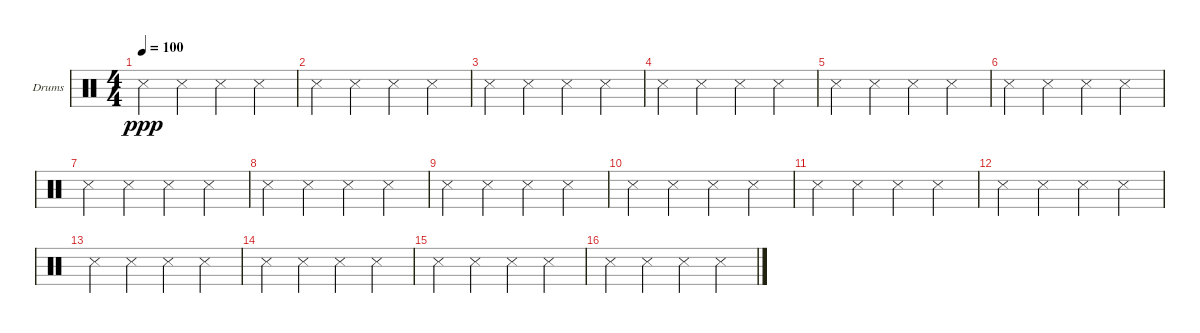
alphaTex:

\bracketExtendMode groupsimilarinstruments
\firstSystemTrackNameOrientation horizontal
\otherSystemsTrackNameOrientation horizontal
\track ("Drumkit" "Drums") {instrument percussion}
\staff {score}
\articulation defaults
\ts (4 4)
\tempo 100
\clef neutral
\ks aminor "Snare (side stick) 3".4{dy ppp} "Snare (side stick) 3".4 "Snare (side stick) 3".4 "Snare (side stick) 3".4
|
\ks c "Snare (side stick) 3".4 "Snare (side stick) 3".4 "Snare (side stick) 3".4 "Snare (side stick) 3".4
|
"Snare (side stick) 3".4 "Snare (side stick) 3".4 "Snare (side stick) 3".4 "Snare (side stick) 3".4 |
"Snare (side stick) 3".4 "Snare (side stick) 3".4 "Snare (side stick) 3".4 "Snare (side stick) 3".4 |
"Snare (side stick) 3".4 "Snare (side stick) 3".4 "Snare (side stick) 3".4 "Snare (side stick) 3".4 |
"Snare (side stick) 3".4 "Snare (side stick) 3".4 "Snare (side stick) 3".4 "Snare (side stick) 3".4 |
"Snare (side stick) 3".4 "Snare (side stick) 3".4 "Snare (side stick) 3".4 "Snare (side stick) 3".4 |
"Snare (side stick) 3".4 "Snare (side stick) 3".4 "Snare (side stick) 3".4 "Snare (side stick) 3".4 |
"Snare (side stick) 3".4 "Snare (side stick) 3".4 "Snare (side stick) 3".4 "Snare (side stick) 3".4 |
"Snare (side stick) 3".4 "Snare (side stick) 3".4 "Snare (side stick) 3".4 "Snare (side stick) 3".4 |
"Snare (side stick) 3".4 "Snare (side stick) 3".4 "Snare (side stick) 3".4 "Snare (side stick) 3".4 |
"Snare (side stick) 3".4 "Snare (side stick) 3".4 "Snare (side stick) 3".4 "Snare (side stick) 3".4 |
"Snare (side stick) 3".4 "Snare (side stick) 3".4 "Snare (side stick) 3".4 "Snare (side stick) 3".4 |
"Snare (side stick) 3".4 "Snare (side stick) 3".4 "Snare (side stick) 3".4 "Snare (side stick) 3".4 |
"Snare (side stick) 3".4 "Snare (side stick) 3".4 "Snare (side stick) 3".4 "Snare (side stick) 3".4 |
"Snare (side stick) 3".4 "Snare (side stick) 3".4 "Snare (side stick) 3".4 "Snare (side stick) 3".4
